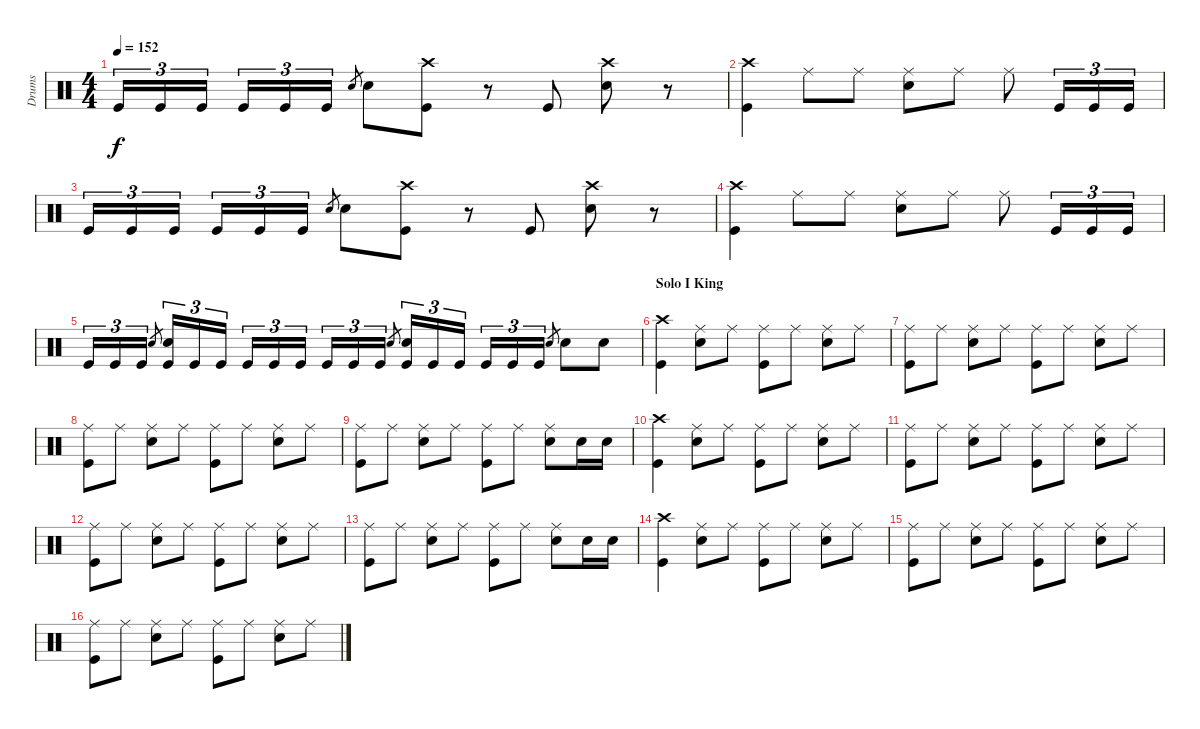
\track ("Drums" "Drums") {instrument percussion}
\staff {score}
\articulation defaults
\ts (4 4)
\tempo 152
\clef neutral
\ks c "Kick (hit)".16{tu (3 2) dy f} "Kick (hit)".16{tu (3 2)} "Kick (hit)".16{tu (3 2)} "Kick (hit)".16{tu (3 2)} "Kick (hit)".16{tu (3 2)} "Kick (hit)".16{tu (3 2)} "Snare (hit) 2".8{gr} "Snare (hit) 2".8
("Crash high (hit)" "Kick (hit)").8 r.8 "Kick (hit)".8 ("Crash high (hit)" "Snare (hit) 2").8 r.8 |
("Crash high (hit)" "Kick (hit)").4 "Ride (middle)".8 "Ride (middle)".8 ("Ride (middle)" "Snare (hit) 2").8 "Ride (middle)".8 "Ride (middle)".8 "Kick (hit)".16{tu (3 2)} "Kick (hit)".16{tu (3 2)} "Kick (hit)".16{tu (3 2)} |
"Kick (hit)".16{tu (3 2)} "Kick (hit)".16{tu (3 2)} "Kick (hit)".16{tu (3 2)} "Kick (hit)".16{tu (3 2)} "Kick (hit)".16{tu (3 2)} "Kick (hit)".16{tu (3 2)} "Snare (hit) 2".8{gr} "Snare (hit) 2".8 ("Crash high (hit)" "Kick (hit)").8 r.8 "Kick (hit)".8 ("Crash high (hit)" "Snare (hit) 2").8 r.8 |
("Crash high (hit)" "Kick (hit)").4 "Ride (middle)".8 "Ride (middle)".8 ("Ride (middle)" "Snare (hit) 2").8 "Ride (middle)".8 "Ride (middle)".8 "Kick (hit)".16{tu (3 2)} "Kick (hit)".16{tu (3 2)} "Kick (hit)".16{tu (3 2)} |
"Kick (hit)".16{tu (3 2)} "Kick (hit)".16{tu (3 2)} "Kick (hit)".16{tu (3 2)} "Snare (hit) 2".8{gr} ("Snare (hit) 2" "Kick (hit)").16{tu (3 2)} "Kick (hit)".16{tu (3 2)} "Kick (hit)".16{tu (3 2)} "Kick (hit)".16{tu (3 2)} "Kick (hit)".16{tu (3 2)} "Kick (hit)".16{tu (3 2)} "Kick (hit)".16{tu (3 2)} "Kick (hit)".16{tu (3 2)} "Kick (hit)".16{tu (3 2)} "Snare (hit) 2".8{gr} ("Snare (hit) 2" "Kick (hit)").16{tu (3 2)} "Kick (hit)".16{tu (3 2)} "Kick (hit)".16{tu (3 2)} "Kick (hit)".16{tu (3 2)} "Kick (hit)".16{tu (3 2)} "Kick (hit)".16{tu (3 2)} "Snare (hit) 2".8{gr} "Snare (hit) 2".8 "Snare (hit) 2".8 |
\section ("" "Solo I King")
("Crash high (hit)" "Kick (hit)").4 ("Ride (middle)" "Snare (hit) 2").8 "Ride (middle)".8 ("Ride (middle)" "Kick (hit)").8 "Ride (middle)".8 ("Ride (middle)" "Snare (hit) 2").8 "Ride (middle)".8 |
("Ride (middle)" "Kick (hit)").8 "Ride (middle)".8 ("Ride (middle)" "Snare (hit) 2").8 "Ride (middle)".8 ("Ride (middle)" "Kick (hit)").8 "Ride (middle)".8 ("Ride (middle)" "Snare (hit) 2").8 "Ride (middle)".8 |
("Ride (middle)" "Kick (hit)").8 "Ride (middle)".8 ("Ride (middle)" "Snare (hit) 2").8 "Ride (middle)".8 ("Ride (middle)" "Kick (hit)").8 "Ride (middle)".8 ("Ride (middle)" "Snare (hit) 2").8 "Ride (middle)".8 |
("Ride (middle)" "Kick (hit)").8 "Ride (middle)".8 ("Ride (middle)" "Snare (hit) 2").8 "Ride (middle)".8 ("Ride (middle)" "Kick (hit)").8 "Ride (middle)".8 ("Ride (middle)" "Snare (hit) 2").8 "Snare (hit) 2".16 "Snare (hit) 2".16 |
("Crash high (hit)" "Kick (hit)").4 ("Ride (middle)" "Snare (hit) 2").8 "Ride (middle)".8 ("Ride (middle)" "Kick (hit)").8 "Ride (middle)".8 ("Ride (middle)" "Snare (hit) 2").8 "Ride (middle)".8 |
("Ride (middle)" "Kick (hit)").8 "Ride (middle)".8 ("Ride (middle)" "Snare (hit) 2").8 "Ride (middle)".8 ("Ride (middle)" "Kick (hit)").8 "Ride (middle)".8 ("Ride (middle)" "Snare (hit) 2").8 "Ride (middle)".8 |
("Ride (middle)" "Kick (hit)").8 "Ride (middle)".8 ("Ride (middle)" "Snare (hit) 2").8 "Ride (middle)".8 ("Ride (middle)" "Kick (hit)").8 "Ride (middle)".8 ("Ride (middle)" "Snare (hit) 2").8 "Ride (middle)".8 |
("Ride (middle)" "Kick (hit)").8 "Ride (middle)".8 ("Ride (middle)" "Snare (hit) 2").8 "Ride (middle)".8 ("Ride (middle)" "Kick (hit)").8 "Ride (middle)".8 ("Ride (middle)" "Snare (hit) 2").8 "Snare (hit) 2".16 "Snare (hit) 2".16 |
("Crash high (hit)" "Kick (hit)").4 ("Ride (middle)" "Snare (hit) 2").8 "Ride (middle)".8 ("Ride (middle)" "Kick (hit)").8 "Ride (middle)".8 ("Ride (middle)" "Snare (hit) 2").8 "Ride (middle)".8 |
("Ride (middle)" "Kick (hit)").8 "Ride (middle)".8 ("Ride (middle)" "Snare (hit) 2").8 "Ride (middle)".8 ("Ride (middle)" "Kick (hit)").8 "Ride (middle)".8 ("Ride (middle)" "Snare (hit) 2").8 "Ride (middle)".8 |
("Ride (middle)" "Kick (hit)").8 "Ride (middle)".8 ("Ride (middle)" "Snare (hit) 2").8 "Ride (middle)".8 ("Ride (middle)" "Kick (hit)").8 "Ride (middle)".8 ("Ride (middle)" "Snare (hit) 2").8 "Ride (middle)".8
